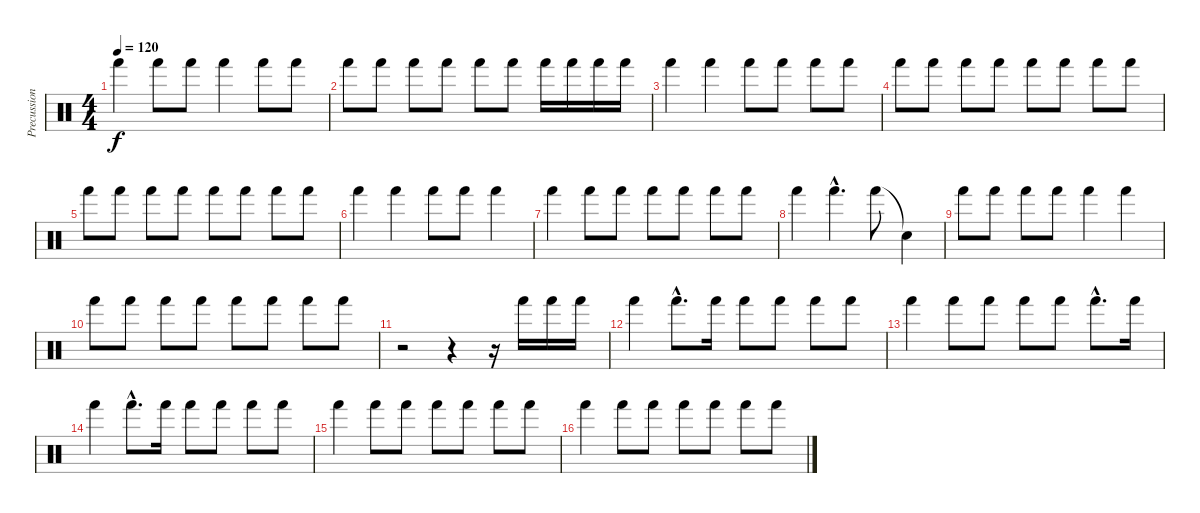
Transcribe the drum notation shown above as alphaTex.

\track ("Precussion" "Precussion") {instrument percussion}
\staff {score}
\articulation defaults
\ts (4 4)
\tempo 120
\clef neutral
\ks c "Hand (hit)".4{dy f} "Hand (hit)".8 "Hand (hit)".8 "Hand (hit)".4 "Hand (hit)".8 "Hand (hit)".8
|
"Hand (hit)".8 "Hand (hit)".8 "Hand (hit)".8 "Hand (hit)".8 "Hand (hit)".8 "Hand (hit)".8 "Hand (hit)".16 "Hand (hit)".16 "Hand (hit)".16 "Hand (hit)".16 |
"Hand (hit)".4 "Hand (hit)".4 "Hand (hit)".8 "Hand (hit)".8 "Hand (hit)".8 "Hand (hit)".8 |
"Hand (hit)".8 "Hand (hit)".8 "Hand (hit)".8 "Hand (hit)".8 "Hand (hit)".8 "Hand (hit)".8 "Hand (hit)".8 "Hand (hit)".8 |
"Hand (hit)".8 "Hand (hit)".8 "Hand (hit)".8 "Hand (hit)".8 "Hand (hit)".8 "Hand (hit)".8 "Hand (hit)".8 "Hand (hit)".8 |
"Hand (hit)".4 "Hand (hit)".4 "Hand (hit)".8 "Hand (hit)".8 "Hand (hit)".4 |
"Hand (hit)".4 "Hand (hit)".8 "Hand (hit)".8 "Hand (hit)".8 "Hand (hit)".8 "Hand (hit)".8 "Hand (hit)".8 |
"Hand (hit)".4 "Hand (hit)"{hac}.4{d} "Hand (hit)".8 "Snare (hit)"{t}.4 |
"Hand (hit)".8 "Hand (hit)".8 "Hand (hit)".8 "Hand (hit)".8 "Hand (hit)".4 "Hand (hit)".4 |
"Hand (hit)".8 "Hand (hit)".8 "Hand (hit)".8 "Hand (hit)".8 "Hand (hit)".8 "Hand (hit)".8 "Hand (hit)".8 "Hand (hit)".8 |
r.2 r.4 r.16 "Hand (hit)".16 "Hand (hit)".16 "Hand (hit)".16 |
"Hand (hit)".4 "Hand (hit)"{hac}.8{d} "Hand (hit)".16 "Hand (hit)".8 "Hand (hit)".8 "Hand (hit)".8 "Hand (hit)".8 |
"Hand (hit)".4 "Hand (hit)".8 "Hand (hit)".8 "Hand (hit)".8 "Hand (hit)".8 "Hand (hit)"{hac}.8{d} "Hand (hit)".16 |
"Hand (hit)".4 "Hand (hit)"{hac}.8{d} "Hand (hit)".16 "Hand (hit)".8 "Hand (hit)".8 "Hand (hit)".8 "Hand (hit)".8 |
"Hand (hit)".4 "Hand (hit)".8 "Hand (hit)".8 "Hand (hit)".8 "Hand (hit)".8 "Hand (hit)".8 "Hand (hit)".8 |
"Hand (hit)".4 "Hand (hit)".8 "Hand (hit)".8 "Hand (hit)".8 "Hand (hit)".8 "Hand (hit)".8 "Hand (hit)".8
